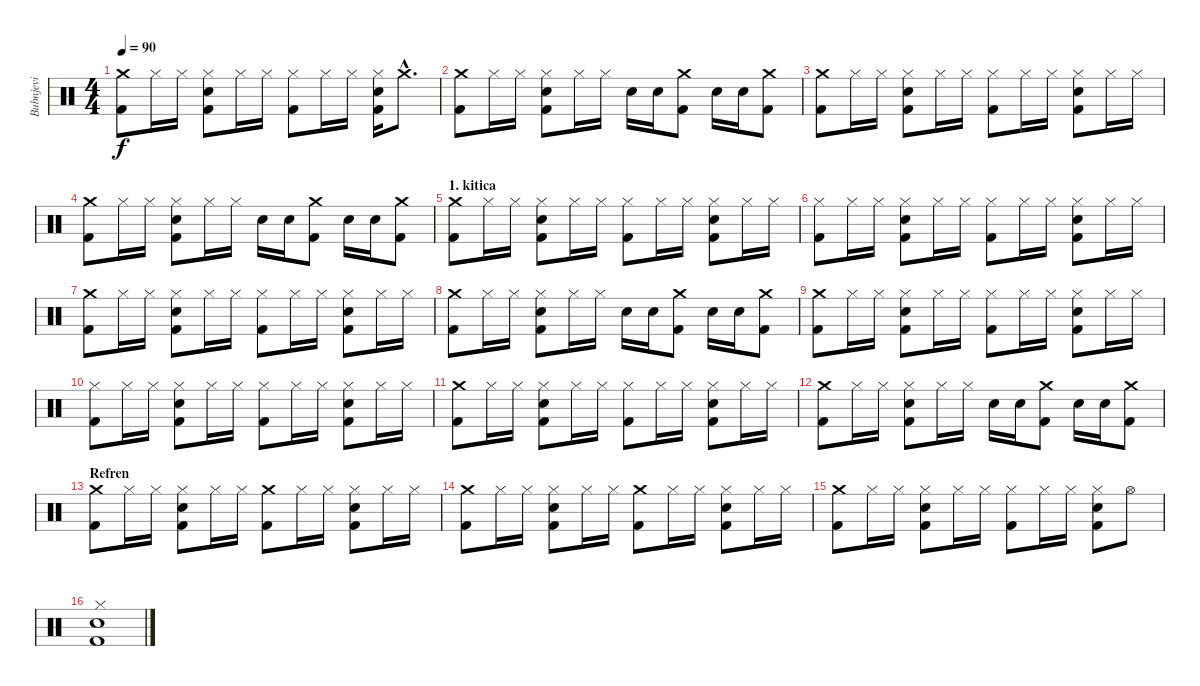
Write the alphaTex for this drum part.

\track ("Bubnjevi" "Bubnjevi") {instrument percussion}
\staff {score}
\articulation defaults
\ts (4 4)
\tempo 90
\clef neutral
\ks c
("Crash medium (hit)" "Kick (hit) 2").8{dy f} "Hi-Hat (closed)".16 "Hi-Hat (closed)".16 ("Snare (hit) 2" "Hi-Hat (closed)" "Kick (hit) 2").8 "Hi-Hat (closed)".16 "Hi-Hat (closed)".16 ("Hi-Hat (closed)" "Kick (hit) 2").8 "Hi-Hat (closed)".16 "Hi-Hat (closed)".16 ("Snare (hit) 2" "Hi-Hat (closed)" "Kick (hit) 2").16 "Crash medium (hit)"{hac}.8{d} |
("Crash medium (hit)" "Kick (hit) 2").8 "Hi-Hat (closed)".16 "Hi-Hat (closed)".16 ("Snare (hit) 2" "Hi-Hat (closed)" "Kick (hit) 2").8 "Hi-Hat (closed)".16 "Hi-Hat (closed)".16 "Snare (hit) 2".16 "Snare (hit) 2".16 ("Crash medium (hit)" "Kick (hit) 2").8 "Snare (hit) 2".16 "Snare (hit) 2".16 ("Crash medium (hit)" "Kick (hit) 2").8 |
("Crash medium (hit)" "Kick (hit) 2").8 "Hi-Hat (closed)".16 "Hi-Hat (closed)".16 ("Snare (hit) 2" "Hi-Hat (closed)" "Kick (hit) 2").8 "Hi-Hat (closed)".16 "Hi-Hat (closed)".16 ("Hi-Hat (closed)" "Kick (hit) 2").8 "Hi-Hat (closed)".16 "Hi-Hat (closed)".16 ("Snare (hit) 2" "Hi-Hat (closed)" "Kick (hit) 2").8 "Hi-Hat (closed)".16 "Hi-Hat (closed)".16 |
("Crash medium (hit)" "Kick (hit) 2").8 "Hi-Hat (closed)".16 "Hi-Hat (closed)".16 ("Snare (hit) 2" "Hi-Hat (closed)" "Kick (hit) 2").8 "Hi-Hat (closed)".16 "Hi-Hat (closed)".16 "Snare (hit) 2".16 "Snare (hit) 2".16 ("Crash medium (hit)" "Kick (hit) 2").8 "Snare (hit) 2".16 "Snare (hit) 2".16 ("Crash medium (hit)" "Kick (hit) 2").8 |
\section ("" "1. kitica")
("Crash medium (hit)" "Kick (hit) 2").8 "Hi-Hat (closed)".16 "Hi-Hat (closed)".16 ("Snare (hit) 2" "Hi-Hat (closed)" "Kick (hit) 2").8 "Hi-Hat (closed)".16 "Hi-Hat (closed)".16 ("Hi-Hat (closed)" "Kick (hit) 2").8 "Hi-Hat (closed)".16 "Hi-Hat (closed)".16 ("Snare (hit) 2" "Hi-Hat (closed)" "Kick (hit) 2").8 "Hi-Hat (closed)".16 "Hi-Hat (closed)".16 |
("Hi-Hat (closed)" "Kick (hit) 2").8 "Hi-Hat (closed)".16 "Hi-Hat (closed)".16 ("Snare (hit) 2" "Hi-Hat (closed)" "Kick (hit) 2").8 "Hi-Hat (closed)".16 "Hi-Hat (closed)".16 ("Hi-Hat (closed)" "Kick (hit) 2").8 "Hi-Hat (closed)".16 "Hi-Hat (closed)".16 ("Snare (hit) 2" "Hi-Hat (closed)" "Kick (hit) 2").8 "Hi-Hat (closed)".16 "Hi-Hat (closed)".16 |
("Crash medium (hit)" "Kick (hit) 2").8 "Hi-Hat (closed)".16 "Hi-Hat (closed)".16 ("Snare (hit) 2" "Hi-Hat (closed)" "Kick (hit) 2").8 "Hi-Hat (closed)".16 "Hi-Hat (closed)".16 ("Hi-Hat (closed)" "Kick (hit) 2").8 "Hi-Hat (closed)".16 "Hi-Hat (closed)".16 ("Snare (hit) 2" "Hi-Hat (closed)" "Kick (hit) 2").8 "Hi-Hat (closed)".16 "Hi-Hat (closed)".16 |
("Crash medium (hit)" "Kick (hit) 2").8 "Hi-Hat (closed)".16 "Hi-Hat (closed)".16 ("Snare (hit) 2" "Hi-Hat (closed)" "Kick (hit) 2").8 "Hi-Hat (closed)".16 "Hi-Hat (closed)".16 "Snare (hit) 2".16 "Snare (hit) 2".16 ("Crash medium (hit)" "Kick (hit) 2").8 "Snare (hit) 2".16 "Snare (hit) 2".16 ("Crash medium (hit)" "Kick (hit) 2").8 |
("Crash medium (hit)" "Kick (hit) 2").8 "Hi-Hat (closed)".16 "Hi-Hat (closed)".16 ("Snare (hit) 2" "Hi-Hat (closed)" "Kick (hit) 2").8 "Hi-Hat (closed)".16 "Hi-Hat (closed)".16 ("Hi-Hat (closed)" "Kick (hit) 2").8 "Hi-Hat (closed)".16 "Hi-Hat (closed)".16 ("Snare (hit) 2" "Hi-Hat (closed)" "Kick (hit) 2").8 "Hi-Hat (closed)".16 "Hi-Hat (closed)".16 |
("Hi-Hat (closed)" "Kick (hit) 2").8 "Hi-Hat (closed)".16 "Hi-Hat (closed)".16 ("Snare (hit) 2" "Hi-Hat (closed)" "Kick (hit) 2").8 "Hi-Hat (closed)".16 "Hi-Hat (closed)".16 ("Hi-Hat (closed)" "Kick (hit) 2").8 "Hi-Hat (closed)".16 "Hi-Hat (closed)".16 ("Snare (hit) 2" "Hi-Hat (closed)" "Kick (hit) 2").8 "Hi-Hat (closed)".16 "Hi-Hat (closed)".16 |
("Crash medium (hit)" "Kick (hit) 2").8 "Hi-Hat (closed)".16 "Hi-Hat (closed)".16 ("Snare (hit) 2" "Hi-Hat (closed)" "Kick (hit) 2").8 "Hi-Hat (closed)".16 "Hi-Hat (closed)".16 ("Hi-Hat (closed)" "Kick (hit) 2").8 "Hi-Hat (closed)".16 "Hi-Hat (closed)".16 ("Snare (hit) 2" "Hi-Hat (closed)" "Kick (hit) 2").8 "Hi-Hat (closed)".16 "Hi-Hat (closed)".16 |
("Crash medium (hit)" "Kick (hit) 2").8 "Hi-Hat (closed)".16 "Hi-Hat (closed)".16 ("Snare (hit) 2" "Hi-Hat (closed)" "Kick (hit) 2").8 "Hi-Hat (closed)".16 "Hi-Hat (closed)".16 "Snare (hit) 2".16 "Snare (hit) 2".16 ("Crash medium (hit)" "Kick (hit) 2").8 "Snare (hit) 2".16 "Snare (hit) 2".16 ("Crash medium (hit)" "Kick (hit) 2").8 |
\section ("" "Refren")
("Crash medium (hit)" "Kick (hit) 2").8 "Hi-Hat (closed)".16 "Hi-Hat (closed)".16 ("Snare (hit) 2" "Hi-Hat (closed)" "Kick (hit) 2").8 "Hi-Hat (closed)".16 "Hi-Hat (closed)".16 ("Crash medium (hit)" "Kick (hit) 2").8 "Hi-Hat (closed)".16 "Hi-Hat (closed)".16 ("Snare (hit) 2" "Hi-Hat (closed)" "Kick (hit) 2").8 "Hi-Hat (closed)".16 "Hi-Hat (closed)".16 |
("Crash medium (hit)" "Kick (hit) 2").8 "Hi-Hat (closed)".16 "Hi-Hat (closed)".16 ("Snare (hit) 2" "Hi-Hat (closed)" "Kick (hit) 2").8 "Hi-Hat (closed)".16 "Hi-Hat (closed)".16 ("Crash medium (hit)" "Kick (hit) 2").8 "Hi-Hat (closed)".16 "Hi-Hat (closed)".16 ("Snare (hit) 2" "Hi-Hat (closed)" "Kick (hit) 2").8 "Hi-Hat (closed)".16 "Hi-Hat (closed)".16 |
("Crash medium (hit)" "Kick (hit) 2").8 "Hi-Hat (closed)".16 "Hi-Hat (closed)".16 ("Snare (hit) 2" "Hi-Hat (closed)" "Kick (hit) 2").8 "Hi-Hat (closed)".16 "Hi-Hat (closed)".16 ("Hi-Hat (closed)" "Kick (hit) 2").8 "Hi-Hat (closed)".16 "Hi-Hat (closed)".16 ("Snare (hit) 2" "Hi-Hat (closed)" "Kick (hit) 2").8 "Hi-Hat (open)".8 |
("Snare (hit) 2" "Hi-Hat (closed)" "Kick (hit) 2").1
